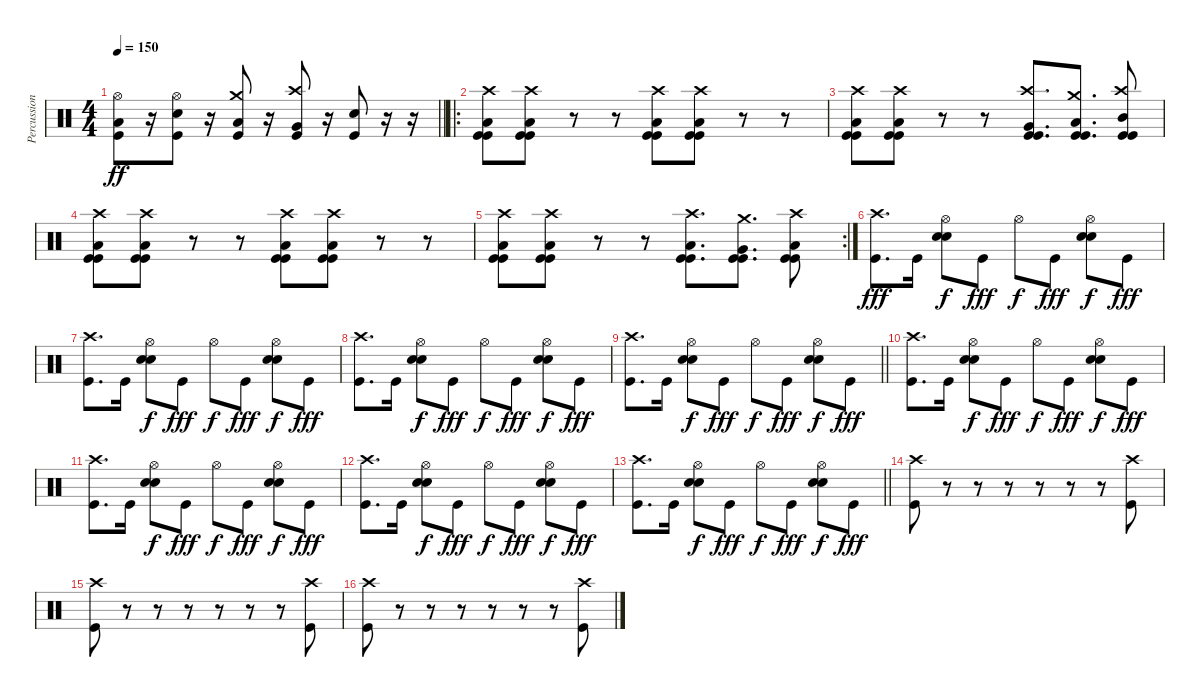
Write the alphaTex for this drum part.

\track ("Percussion" "Percussion") {instrument percussion}
\staff {score}
\articulation defaults
\ts (4 4)
\tempo 150
\clef neutral
\barLineRight lightlight
\ks c
("Hi-Hat (open)" "Low Floor Tom (hit)" "Kick (hit)").8{dy ff} r.16 ("Electric Snare (hit)" "Hi-Hat (open)" "Kick (hit)").8 r.16 ("Crash medium (hit)" "Low Tom (hit)" "Kick (hit)").8 r.16 ("Crash high (hit)" "Very Low Tom (hit)" "Kick (hit)").8 r.16 ("Electric Snare (hit)" "Kick (hit)").8 r.16 r.16 |
\ro
\section ("" "")
("Crash high (hit)" "Low Floor Tom (hit)" "Kick (hit)" "Kick (hit)").8 ("Crash high (hit)" "Low Floor Tom (hit)" "Kick (hit)" "Kick (hit)").8 r.8 r.8 ("Crash high (hit)" "Low Floor Tom (hit)" "Kick (hit)" "Kick (hit)").8 ("Crash high (hit)" "Low Floor Tom (hit)" "Kick (hit)" "Kick (hit)").8 r.8 r.8 |
("Crash high (hit)" "Low Floor Tom (hit)" "Kick (hit)" "Kick (hit)").8 ("Crash high (hit)" "Low Floor Tom (hit)" "Kick (hit)" "Kick (hit)").8 r.8 r.8 ("Crash high (hit)" "Very Low Tom (hit)" "Kick (hit)" "Kick (hit)").8{d} ("Crash medium (hit)" "Low Tom (hit)" "Kick (hit)" "Kick (hit)").8{d} ("Crash high (hit)" "Mid Tom (hit)" "Kick (hit)" "Kick (hit)").8 |
("Crash high (hit)" "Low Floor Tom (hit)" "Kick (hit)" "Kick (hit)").8 ("Crash high (hit)" "Low Floor Tom (hit)" "Kick (hit)" "Kick (hit)").8 r.8 r.8 ("Crash high (hit)" "Low Floor Tom (hit)" "Kick (hit)" "Kick (hit)").8 ("Crash high (hit)" "Low Floor Tom (hit)" "Kick (hit)" "Kick (hit)").8 r.8 r.8 |
\rc 2
("Crash high (hit)" "Low Floor Tom (hit)" "Kick (hit)" "Kick (hit)").8 ("Crash high (hit)" "Low Floor Tom (hit)" "Kick (hit)" "Kick (hit)").8 r.8 r.8 ("Crash high (hit)" "Low Tom (hit)" "Kick (hit)" "Kick (hit)").8{d} ("Crash medium (hit)" "Very Low Tom (hit)" "Kick (hit)" "Kick (hit)").8{d} ("Crash high (hit)" "Low Tom (hit)" "Kick (hit)" "Kick (hit)").8 |
("Crash high (hit)" "Kick (hit)").8{d dy fff} "Kick (hit)".16 ("Hi-Hat (open)" "Snare (hit) 2" "Electric Snare (hit)").8{dy f} "Kick (hit)".8{dy fff} "Hi-Hat (open)".8{dy f} "Kick (hit)".8{dy fff} ("Hi-Hat (open)" "Snare (hit) 2" "Electric Snare (hit)").8{dy f} "Kick (hit)".8{dy fff} |
("Crash high (hit)" "Kick (hit)").8{d} "Kick (hit)".16 ("Hi-Hat (open)" "Snare (hit) 2" "Electric Snare (hit)").8{dy f} "Kick (hit)".8{dy fff} "Hi-Hat (open)".8{dy f} "Kick (hit)".8{dy fff} ("Hi-Hat (open)" "Snare (hit) 2" "Electric Snare (hit)").8{dy f} "Kick (hit)".8{dy fff} |
("Crash high (hit)" "Kick (hit)").8{d} "Kick (hit)".16 ("Hi-Hat (open)" "Snare (hit) 2" "Electric Snare (hit)").8{dy f} "Kick (hit)".8{dy fff} "Hi-Hat (open)".8{dy f} "Kick (hit)".8{dy fff} ("Hi-Hat (open)" "Snare (hit) 2" "Electric Snare (hit)").8{dy f} "Kick (hit)".8{dy fff} |
\barLineRight lightlight
("Crash high (hit)" "Kick (hit)").8{d} "Kick (hit)".16 ("Hi-Hat (open)" "Snare (hit) 2" "Electric Snare (hit)").8{dy f} "Kick (hit)".8{dy fff} "Hi-Hat (open)".8{dy f} "Kick (hit)".8{dy fff} ("Hi-Hat (open)" "Snare (hit) 2" "Electric Snare (hit)").8{dy f} "Kick (hit)".8{dy fff} |
("Crash high (hit)" "Kick (hit)").8{d} "Kick (hit)".16 ("Hi-Hat (open)" "Snare (hit) 2" "Electric Snare (hit)").8{dy f} "Kick (hit)".8{dy fff} "Hi-Hat (open)".8{dy f} "Kick (hit)".8{dy fff} ("Hi-Hat (open)" "Snare (hit) 2" "Electric Snare (hit)").8{dy f} "Kick (hit)".8{dy fff} |
("Crash high (hit)" "Kick (hit)").8{d} "Kick (hit)".16 ("Hi-Hat (open)" "Snare (hit) 2" "Electric Snare (hit)").8{dy f} "Kick (hit)".8{dy fff} "Hi-Hat (open)".8{dy f} "Kick (hit)".8{dy fff} ("Hi-Hat (open)" "Snare (hit) 2" "Electric Snare (hit)").8{dy f} "Kick (hit)".8{dy fff} |
("Crash high (hit)" "Kick (hit)").8{d} "Kick (hit)".16 ("Hi-Hat (open)" "Snare (hit) 2" "Electric Snare (hit)").8{dy f} "Kick (hit)".8{dy fff} "Hi-Hat (open)".8{dy f} "Kick (hit)".8{dy fff} ("Hi-Hat (open)" "Snare (hit) 2" "Electric Snare (hit)").8{dy f} "Kick (hit)".8{dy fff} |
\barLineRight lightlight
("Crash high (hit)" "Kick (hit)").8{d} "Kick (hit)".16 ("Hi-Hat (open)" "Snare (hit) 2" "Electric Snare (hit)").8{dy f} "Kick (hit)".8{dy fff} "Hi-Hat (open)".8{dy f} "Kick (hit)".8{dy fff} ("Hi-Hat (open)" "Snare (hit) 2" "Electric Snare (hit)").8{dy f} "Kick (hit)".8{dy fff} |
("Crash high (hit)" "Kick (hit)").8 r.8 r.8 r.8 r.8 r.8 r.8 ("Crash high (hit)" "Kick (hit)").8 |
("Crash high (hit)" "Kick (hit)").8 r.8 r.8 r.8 r.8 r.8 r.8 ("Crash high (hit)" "Kick (hit)").8 |
("Crash high (hit)" "Kick (hit)").8 r.8 r.8 r.8 r.8 r.8 r.8 ("Crash high (hit)" "Kick (hit)").8
